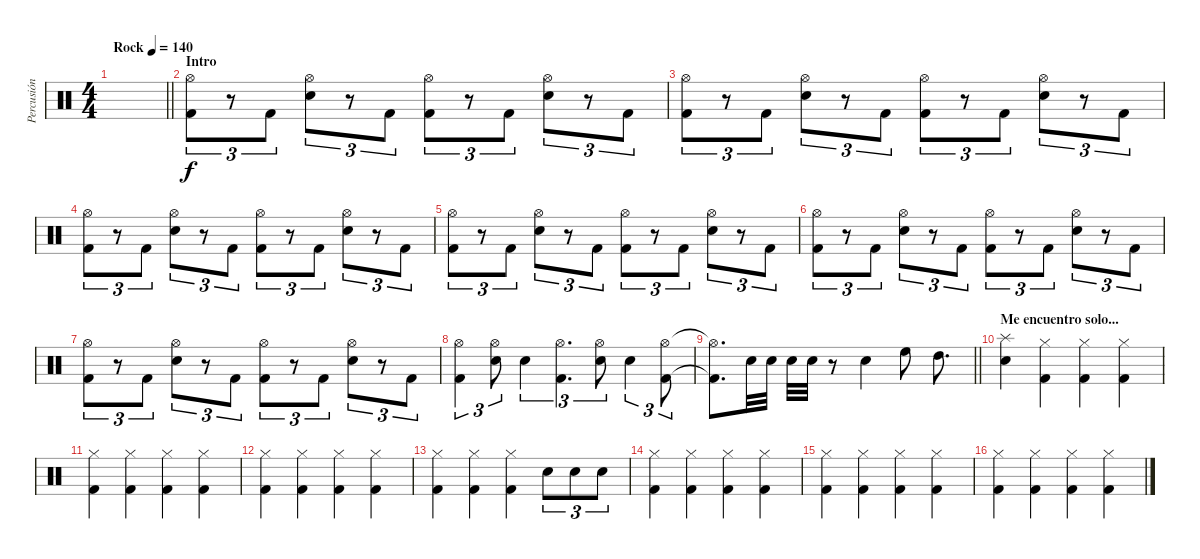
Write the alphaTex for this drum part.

\track ("Percusión" "Percusión") {instrument percussion}
\staff {score}
\articulation defaults
\ts (4 4)
\tempo (140 "Rock")
\clef neutral
\barLineRight lightlight
\ks c
|
\section ("" "Intro")
("Hi-Hat (open)" "Kick (hit) 2").8{tu (3 2)} r.8{tu (3 2)} "Kick (hit) 2".8{tu (3 2)} ("Hi-Hat (open)" "Snare (hit) 2").8{tu (3 2)} r.8{tu (3 2)} "Kick (hit) 2".8{tu (3 2)} ("Hi-Hat (open)" "Kick (hit) 2").8{tu (3 2)} r.8{tu (3 2)} "Kick (hit) 2".8{tu (3 2)} ("Hi-Hat (open)" "Snare (hit) 2").8{tu (3 2)} r.8{tu (3 2)} "Kick (hit) 2".8{tu (3 2)} |
("Hi-Hat (open)" "Kick (hit) 2").8{tu (3 2)} r.8{tu (3 2)} "Kick (hit) 2".8{tu (3 2)} ("Hi-Hat (open)" "Snare (hit) 2").8{tu (3 2)} r.8{tu (3 2)} "Kick (hit) 2".8{tu (3 2)} ("Hi-Hat (open)" "Kick (hit) 2").8{tu (3 2)} r.8{tu (3 2)} "Kick (hit) 2".8{tu (3 2)} ("Hi-Hat (open)" "Snare (hit) 2").8{tu (3 2)} r.8{tu (3 2)} "Kick (hit) 2".8{tu (3 2)} |
("Hi-Hat (open)" "Kick (hit) 2").8{tu (3 2)} r.8{tu (3 2)} "Kick (hit) 2".8{tu (3 2)} ("Hi-Hat (open)" "Snare (hit) 2").8{tu (3 2)} r.8{tu (3 2)} "Kick (hit) 2".8{tu (3 2)} ("Hi-Hat (open)" "Kick (hit) 2").8{tu (3 2)} r.8{tu (3 2)} "Kick (hit) 2".8{tu (3 2)} ("Hi-Hat (open)" "Snare (hit) 2").8{tu (3 2)} r.8{tu (3 2)} "Kick (hit) 2".8{tu (3 2)} |
("Hi-Hat (open)" "Kick (hit) 2").8{tu (3 2)} r.8{tu (3 2)} "Kick (hit) 2".8{tu (3 2)} ("Hi-Hat (open)" "Snare (hit) 2").8{tu (3 2)} r.8{tu (3 2)} "Kick (hit) 2".8{tu (3 2)} ("Hi-Hat (open)" "Kick (hit) 2").8{tu (3 2)} r.8{tu (3 2)} "Kick (hit) 2".8{tu (3 2)} ("Hi-Hat (open)" "Snare (hit) 2").8{tu (3 2)} r.8{tu (3 2)} "Kick (hit) 2".8{tu (3 2)} |
("Hi-Hat (open)" "Kick (hit) 2").8{tu (3 2)} r.8{tu (3 2)} "Kick (hit) 2".8{tu (3 2)} ("Hi-Hat (open)" "Snare (hit) 2").8{tu (3 2)} r.8{tu (3 2)} "Kick (hit) 2".8{tu (3 2)} ("Hi-Hat (open)" "Kick (hit) 2").8{tu (3 2)} r.8{tu (3 2)} "Kick (hit) 2".8{tu (3 2)} ("Hi-Hat (open)" "Snare (hit) 2").8{tu (3 2)} r.8{tu (3 2)} "Kick (hit) 2".8{tu (3 2)} |
("Hi-Hat (open)" "Kick (hit) 2").8{tu (3 2)} r.8{tu (3 2)} "Kick (hit) 2".8{tu (3 2)} ("Hi-Hat (open)" "Snare (hit) 2").8{tu (3 2)} r.8{tu (3 2)} "Kick (hit) 2".8{tu (3 2)} ("Hi-Hat (open)" "Kick (hit) 2").8{tu (3 2)} r.8{tu (3 2)} "Kick (hit) 2".8{tu (3 2)} ("Hi-Hat (open)" "Snare (hit) 2").8{tu (3 2)} r.8{tu (3 2)} "Kick (hit) 2".8{tu (3 2)} |
("Hi-Hat (open)" "Kick (hit) 2").4{tu (3 2)} ("Hi-Hat (open)" "Snare (hit) 2").8{tu (3 2)} "Snare (hit) 2".4{tu (3 2)} ("Hi-Hat (open)" "Kick (hit) 2").4{d tu (3 2)} ("Hi-Hat (open)" "Snare (hit) 2").8{tu (3 2)} "Snare (hit) 2".4{tu (3 2)} ("Hi-Hat (open)" "Kick (hit) 2").8{tu (3 2)} |
\barLineRight lightlight
("Hi-Hat (open)"{t} "Kick (hit) 2"{t}).8{d} "Snare (hit) 2".32 "Snare (hit) 2".32 "Snare (hit) 2".32 "Snare (hit) 2".32 r.8 "Snare (hit) 2".4 "High Floor Tom (hit)".8 "High Tom (hit)".8{d} |
\section ("" "Me encuentro solo...")
("Splash (hit)" "Snare (hit) 2").4 ("Hi-Hat (closed)" "Kick (hit) 2").4 ("Hi-Hat (closed)" "Kick (hit) 2").4 ("Hi-Hat (closed)" "Kick (hit) 2").4 |
("Hi-Hat (closed)" "Kick (hit) 2").4 ("Hi-Hat (closed)" "Kick (hit) 2").4 ("Hi-Hat (closed)" "Kick (hit) 2").4 ("Hi-Hat (closed)" "Kick (hit) 2").4 |
("Hi-Hat (closed)" "Kick (hit) 2").4 ("Hi-Hat (closed)" "Kick (hit) 2").4 ("Hi-Hat (closed)" "Kick (hit) 2").4 ("Hi-Hat (closed)" "Kick (hit) 2").4 |
("Hi-Hat (closed)" "Kick (hit) 2").4 ("Hi-Hat (closed)" "Kick (hit) 2").4 ("Hi-Hat (closed)" "Kick (hit) 2").4 "Snare (hit) 2".8{tu (3 2)} "Snare (hit) 2".8{tu (3 2)} "Snare (hit) 2".8{tu (3 2)} |
("Hi-Hat (closed)" "Kick (hit) 2").4 ("Hi-Hat (closed)" "Kick (hit) 2").4 ("Hi-Hat (closed)" "Kick (hit) 2").4 ("Hi-Hat (closed)" "Kick (hit) 2").4 |
("Hi-Hat (closed)" "Kick (hit) 2").4 ("Hi-Hat (closed)" "Kick (hit) 2").4 ("Hi-Hat (closed)" "Kick (hit) 2").4 ("Hi-Hat (closed)" "Kick (hit) 2").4 |
("Hi-Hat (closed)" "Kick (hit) 2").4 ("Hi-Hat (closed)" "Kick (hit) 2").4 ("Hi-Hat (closed)" "Kick (hit) 2").4 ("Hi-Hat (closed)" "Kick (hit) 2").4
